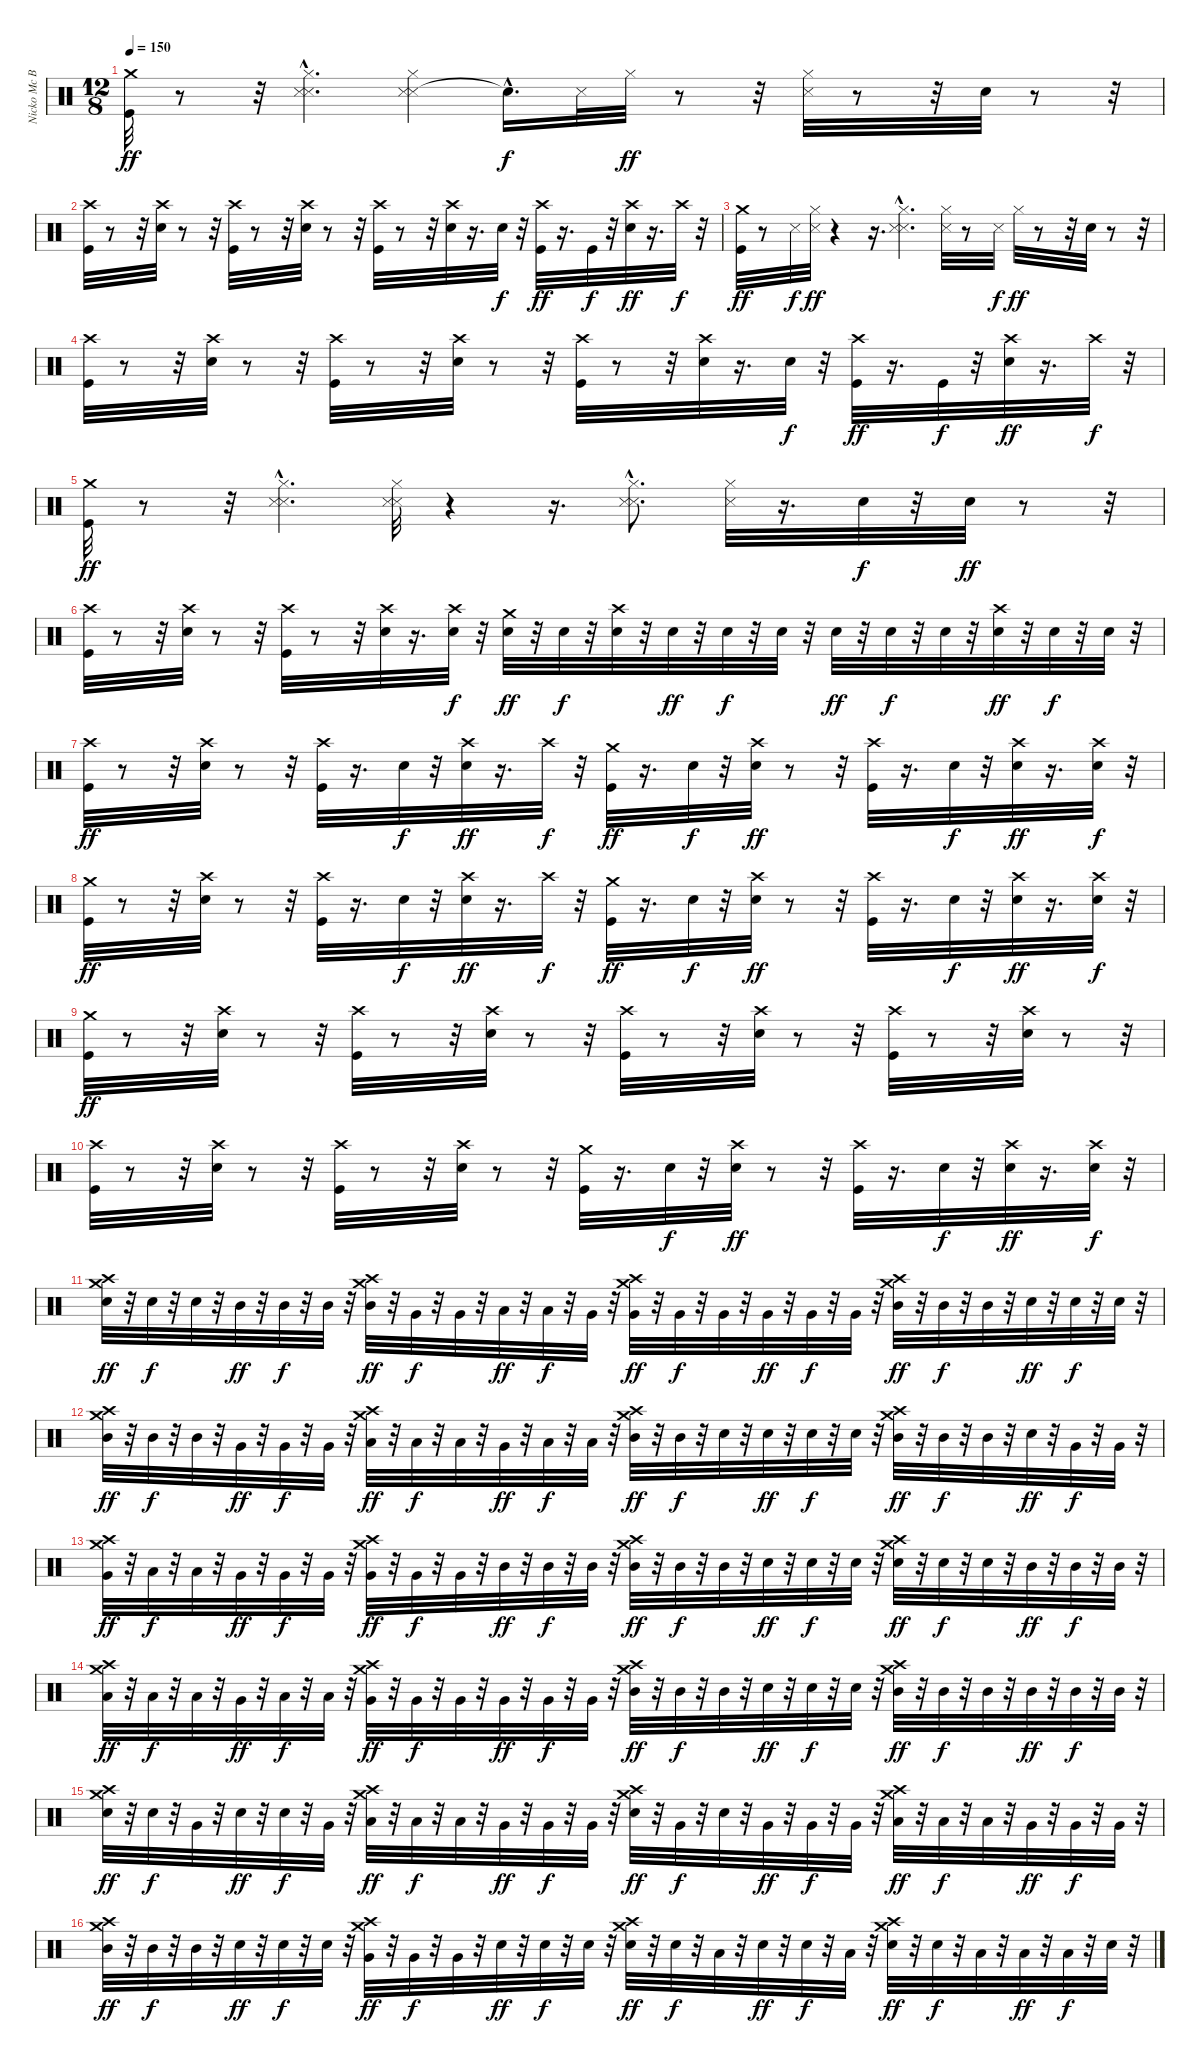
\track ("Nicko Mc Brain  ( drums )" "Nicko Mc B") {instrument percussion}
\staff {score}
\articulation defaults
\ts (12 8)
\tempo 150
\clef neutral
\ks c
("Crash medium (hit)" "Kick (hit)").32{dy ff} r.8 r.32 ("Metronome (hit)"{hac} "Metronome (hit)" "Hi-Hat (closed)").4{d} ("Metronome (hit)" "Metronome (hit)" "Hi-Hat (closed)").4 "Snare (hit)"{hac t}.16{d dy f} "Metronome (hit)".32 "Hi-Hat (closed)".32{dy ff} r.8 r.32 ("Hi-Hat (closed)" "Metronome (hit)").32 r.8 r.32 "Snare (hit) 2".32 r.8 r.32 |
("Crash high (hit)" "Kick (hit)").32 r.8 r.32 ("Crash high (hit)" "Snare (hit) 2").32 r.8 r.32 ("Crash high (hit)" "Kick (hit)").32 r.8 r.32 ("Crash high (hit)" "Snare (hit) 2").32 r.8 r.32 ("Crash high (hit)" "Kick (hit)").32 r.8 r.32 ("Crash high (hit)" "Snare (hit) 2").32 r.16{d} "Snare (hit) 2".32{dy f} r.32 ("Crash high (hit)" "Kick (hit)").32{dy ff} r.16{d} "Kick (hit)".32{dy f} r.32 ("Crash high (hit)" "Snare (hit) 2").32{dy ff} r.16{d} "Crash high (hit)".32{dy f} r.32 |
("Kick (hit)" "Crash medium (hit)").32{dy ff} r.8 "Metronome (hit)".32{dy f} ("Metronome (hit)" "Hi-Hat (closed)").32{dy ff} r.4 r.16{d} ("Metronome (hit)"{hac} "Metronome (hit)" "Hi-Hat (closed)").4{d} ("Metronome (hit)" "Hi-Hat (closed)").32 r.8 "Metronome (hit)".32{dy f} "Hi-Hat (closed)".32{dy ff} r.8 r.32 "Snare (hit) 2".32 r.8 r.32 |
("Crash high (hit)" "Kick (hit)").32 r.8 r.32 ("Crash high (hit)" "Snare (hit) 2").32 r.8 r.32 ("Crash high (hit)" "Kick (hit)").32 r.8 r.32 ("Crash high (hit)" "Snare (hit) 2").32 r.8 r.32 ("Crash high (hit)" "Kick (hit)").32 r.8 r.32 ("Crash high (hit)" "Snare (hit) 2").32 r.16{d} "Snare (hit) 2".32{dy f} r.32 ("Crash high (hit)" "Kick (hit)").32{dy ff} r.16{d} "Kick (hit)".32{dy f} r.32 ("Crash high (hit)" "Snare (hit) 2").32{dy ff} r.16{d} "Crash high (hit)".32{dy f} r.32 |
("Kick (hit)" "Crash medium (hit)").32{dy ff} r.8 r.32 ("Metronome (hit)"{hac} "Metronome (hit)" "Hi-Hat (closed)").4{d} ("Metronome (hit)" "Hi-Hat (closed)" "Metronome (hit)").32 r.4 r.16{d} ("Metronome (hit)"{hac} "Metronome (hit)" "Hi-Hat (closed)").8{d} ("Hi-Hat (closed)" "Metronome (hit)").32 r.16{d} "Snare (hit) 2".32{dy f} r.32 "Snare (hit) 2".32{dy ff} r.8 r.32 |
("Crash high (hit)" "Kick (hit)").32 r.8 r.32 ("Crash high (hit)" "Snare (hit) 2").32 r.8 r.32 ("Crash high (hit)" "Kick (hit)").32 r.8 r.32 ("Crash high (hit)" "Snare (hit) 2").32 r.16{d} ("Electric Snare (hit)" "Crash high (hit)").32{dy f} r.32 ("Snare (hit) 2" "Crash medium (hit)").32{dy ff} r.32 "Snare (hit) 2".32{dy f} r.32 ("Crash high (hit)" "Snare (hit) 2").32 r.32 "Snare (hit) 2".32{dy ff} r.32 "Snare (hit) 2".32{dy f} r.32 "Snare (hit) 2".32 r.32 "Snare (hit) 2".32{dy ff} r.32 "Snare (hit) 2".32{dy f} r.32 "Snare (hit) 2".32 r.32 ("Crash high (hit)" "Snare (hit) 2").32{dy ff} r.32 "Snare (hit) 2".32{dy f} r.32 "Snare (hit) 2".32 r.32 |
("Crash high (hit)" "Kick (hit)").32{dy ff} r.8 r.32 ("Crash high (hit)" "Snare (hit) 2").32 r.8 r.32 ("Crash high (hit)" "Kick (hit)").32 r.16{d} "Electric Snare (hit)".32{dy f} r.32 ("Crash high (hit)" "Snare (hit) 2").32{dy ff} r.16{d} "Crash high (hit)".32{dy f} r.32 ("Crash medium (hit)" "Kick (hit)").32{dy ff} r.16{d} "Snare (hit) 2".32{dy f} r.32 ("Crash high (hit)" "Snare (hit) 2").32{dy ff} r.8 r.32 ("Crash high (hit)" "Kick (hit)").32 r.16{d} "Electric Snare (hit)".32{dy f} r.32 ("Crash high (hit)" "Snare (hit) 2").32{dy ff} r.16{d} ("Electric Snare (hit)" "Crash high (hit)").32{dy f} r.32 |
("Crash medium (hit)" "Kick (hit)").32{dy ff} r.8 r.32 ("Crash high (hit)" "Snare (hit) 2").32 r.8 r.32 ("Crash high (hit)" "Kick (hit)").32 r.16{d} "Electric Snare (hit)".32{dy f} r.32 ("Crash high (hit)" "Snare (hit) 2").32{dy ff} r.16{d} "Crash high (hit)".32{dy f} r.32 ("Crash medium (hit)" "Kick (hit)").32{dy ff} r.16{d} "Snare (hit) 2".32{dy f} r.32 ("Crash high (hit)" "Snare (hit) 2").32{dy ff} r.8 r.32 ("Crash high (hit)" "Kick (hit)").32 r.16{d} "Electric Snare (hit)".32{dy f} r.32 ("Crash high (hit)" "Snare (hit) 2").32{dy ff} r.16{d} ("Electric Snare (hit)" "Crash high (hit)").32{dy f} r.32 |
("Crash medium (hit)" "Kick (hit)").32{dy ff} r.8 r.32 ("Crash high (hit)" "Snare (hit) 2").32 r.8 r.32 ("Crash high (hit)" "Kick (hit)").32 r.8 r.32 ("Crash high (hit)" "Snare (hit) 2").32 r.8 r.32 ("Crash high (hit)" "Kick (hit)").32 r.8 r.32 ("Crash high (hit)" "Snare (hit) 2").32 r.8 r.32 ("Crash high (hit)" "Kick (hit)").32 r.8 r.32 ("Crash high (hit)" "Snare (hit) 2").32 r.8 r.32 |
("Crash high (hit)" "Kick (hit)").32 r.8 r.32 ("Crash high (hit)" "Snare (hit) 2").32 r.8 r.32 ("Crash high (hit)" "Kick (hit)").32 r.8 r.32 ("Crash high (hit)" "Snare (hit) 2").32 r.8 r.32 ("Crash medium (hit)" "Kick (hit)").32 r.16{d} "Snare (hit) 2".32{dy f} r.32 ("Crash high (hit)" "Snare (hit) 2").32{dy ff} r.8 r.32 ("Crash high (hit)" "Kick (hit)").32 r.16{d} "Electric Snare (hit)".32{dy f} r.32 ("Crash high (hit)" "Snare (hit) 2").32{dy ff} r.16{d} ("Electric Snare (hit)" "Crash high (hit)").32{dy f} r.32 |
("Snare (hit) 2" "Crash medium (hit)" "Crash high (hit)").32{dy ff} r.32 "Electric Snare (hit)".32{dy f} r.32 "Electric Snare (hit)".32 r.32 "Mid Tom (hit)".32{dy ff} r.32 "Mid Tom (hit)".32{dy f} r.32 "Mid Tom (hit)".32 r.32 ("Mid Tom (hit)" "Crash high (hit)" "Crash medium (hit)").32{dy ff} r.32 "Very Low Tom (hit)".32{dy f} r.32 "Very Low Tom (hit)".32 r.32 "Low Floor Tom (hit)".32{dy ff} r.32 "Low Floor Tom (hit)".32{dy f} r.32 "Very Low Tom (hit)".32 r.32 ("Very Low Tom (hit)" "Crash medium (hit)" "Crash high (hit)").32{dy ff} r.32 "Very Low Tom (hit)".32{dy f} r.32 "Very Low Tom (hit)".32 r.32 "Very Low Tom (hit)".32{dy ff} r.32 "Very Low Tom (hit)".32{dy f} r.32 "Very Low Tom (hit)".32 r.32 ("Mid Tom (hit)" "Crash high (hit)" "Crash medium (hit)").32{dy ff} r.32 "Mid Tom (hit)".32{dy f} r.32 "Mid Tom (hit)".32 r.32 "Electric Snare (hit)".32{dy ff} r.32 "Electric Snare (hit)".32{dy f} r.32 "Electric Snare (hit)".32 r.32 |
("Mid Tom (hit)" "Crash medium (hit)" "Crash high (hit)").32{dy ff} r.32 "Mid Tom (hit)".32{dy f} r.32 "Mid Tom (hit)".32 r.32 "Very Low Tom (hit)".32{dy ff} r.32 "Very Low Tom (hit)".32{dy f} r.32 "Very Low Tom (hit)".32 r.32 ("Low Floor Tom (hit)" "Crash high (hit)" "Crash medium (hit)").32{dy ff} r.32 "Low Floor Tom (hit)".32{dy f} r.32 "Low Floor Tom (hit)".32 r.32 "Very Low Tom (hit)".32{dy ff} r.32 "Low Floor Tom (hit)".32{dy f} r.32 "Low Floor Tom (hit)".32 r.32 ("Mid Tom (hit)" "Crash medium (hit)" "Crash high (hit)").32{dy ff} r.32 "Mid Tom (hit)".32{dy f} r.32 "Electric Snare (hit)".32 r.32 "Electric Snare (hit)".32{dy ff} r.32 "Electric Snare (hit)".32{dy f} r.32 "Electric Snare (hit)".32 r.32 ("Mid Tom (hit)" "Crash high (hit)" "Crash medium (hit)").32{dy ff} r.32 "Mid Tom (hit)".32{dy f} r.32 "Mid Tom (hit)".32 r.32 "Electric Snare (hit)".32{dy ff} r.32 "Very Low Tom (hit)".32{dy f} r.32 "Very Low Tom (hit)".32 r.32 |
("Very Low Tom (hit)" "Crash medium (hit)" "Crash high (hit)").32{dy ff} r.32 "Low Floor Tom (hit)".32{dy f} r.32 "Low Floor Tom (hit)".32 r.32 "Very Low Tom (hit)".32{dy ff} r.32 "Very Low Tom (hit)".32{dy f} r.32 "Very Low Tom (hit)".32 r.32 ("Very Low Tom (hit)" "Crash high (hit)" "Crash medium (hit)").32{dy ff} r.32 "Very Low Tom (hit)".32{dy f} r.32 "Very Low Tom (hit)".32 r.32 "Mid Tom (hit)".32{dy ff} r.32 "Mid Tom (hit)".32{dy f} r.32 "Mid Tom (hit)".32 r.32 ("Mid Tom (hit)" "Crash medium (hit)" "Crash high (hit)").32{dy ff} r.32 "Mid Tom (hit)".32{dy f} r.32 "Mid Tom (hit)".32 r.32 "Snare (hit) 2".32{dy ff} r.32 "Electric Snare (hit)".32{dy f} r.32 "Electric Snare (hit)".32 r.32 ("Electric Snare (hit)" "Crash high (hit)" "Crash medium (hit)").32{dy ff} r.32 "Electric Snare (hit)".32{dy f} r.32 "Electric Snare (hit)".32 r.32 "Mid Tom (hit)".32{dy ff} r.32 "Mid Tom (hit)".32{dy f} r.32 "Mid Tom (hit)".32 r.32 |
("Low Floor Tom (hit)" "Crash medium (hit)" "Crash high (hit)").32{dy ff} r.32 "Low Floor Tom (hit)".32{dy f} r.32 "Low Floor Tom (hit)".32 r.32 "Very Low Tom (hit)".32{dy ff} r.32 "Low Floor Tom (hit)".32{dy f} r.32 "Low Floor Tom (hit)".32 r.32 ("Very Low Tom (hit)" "Crash high (hit)" "Crash medium (hit)").32{dy ff} r.32 "Very Low Tom (hit)".32{dy f} r.32 "Very Low Tom (hit)".32 r.32 "Very Low Tom (hit)".32{dy ff} r.32 "Very Low Tom (hit)".32{dy f} r.32 "Very Low Tom (hit)".32 r.32 ("Mid Tom (hit)" "Crash medium (hit)" "Crash high (hit)").32{dy ff} r.32 "Mid Tom (hit)".32{dy f} r.32 "Mid Tom (hit)".32 r.32 "Snare (hit) 2".32{dy ff} r.32 "Snare (hit) 2".32{dy f} r.32 "Snare (hit) 2".32 r.32 ("Mid Tom (hit)" "Crash high (hit)" "Crash medium (hit)").32{dy ff} r.32 "Mid Tom (hit)".32{dy f} r.32 "Mid Tom (hit)".32 r.32 "Mid Tom (hit)".32{dy ff} r.32 "Mid Tom (hit)".32{dy f} r.32 "Mid Tom (hit)".32 r.32 |
("Electric Snare (hit)" "Crash medium (hit)" "Crash high (hit)").32{dy ff} r.32 "Electric Snare (hit)".32{dy f} r.32 "Very Low Tom (hit)".32 r.32 "Snare (hit) 2".32{dy ff} r.32 "Snare (hit) 2".32{dy f} r.32 "Very Low Tom (hit)".32 r.32 ("Low Floor Tom (hit)" "Crash high (hit)" "Crash medium (hit)").32{dy ff} r.32 "Low Floor Tom (hit)".32{dy f} r.32 "Low Floor Tom (hit)".32 r.32 "Very Low Tom (hit)".32{dy ff} r.32 "Very Low Tom (hit)".32{dy f} r.32 "Very Low Tom (hit)".32 r.32 ("Snare (hit) 2" "Crash medium (hit)" "Crash high (hit)").32{dy ff} r.32 "Very Low Tom (hit)".32{dy f} r.32 "Electric Snare (hit)".32 r.32 "Very Low Tom (hit)".32{dy ff} r.32 "Very Low Tom (hit)".32{dy f} r.32 "Very Low Tom (hit)".32 r.32 ("Low Floor Tom (hit)" "Crash high (hit)" "Crash medium (hit)").32{dy ff} r.32 "Low Floor Tom (hit)".32{dy f} r.32 "Low Floor Tom (hit)".32 r.32 "Very Low Tom (hit)".32{dy ff} r.32 "Very Low Tom (hit)".32{dy f} r.32 "Very Low Tom (hit)".32 r.32 |
("Mid Tom (hit)" "Crash medium (hit)" "Crash high (hit)").32{dy ff} r.32 "Mid Tom (hit)".32{dy f} r.32 "Mid Tom (hit)".32 r.32 "Snare (hit) 2".32{dy ff} r.32 "Snare (hit) 2".32{dy f} r.32 "Snare (hit) 2".32 r.32 ("Very Low Tom (hit)" "Crash high (hit)" "Crash medium (hit)").32{dy ff} r.32 "Very Low Tom (hit)".32{dy f} r.32 "Very Low Tom (hit)".32 r.32 "Snare (hit) 2".32{dy ff} r.32 "Snare (hit) 2".32{dy f} r.32 "Snare (hit) 2".32 r.32 ("Electric Snare (hit)" "Crash medium (hit)" "Crash high (hit)").32{dy ff} r.32 "Snare (hit) 2".32{dy f} r.32 "Low Floor Tom (hit)".32 r.32 "Snare (hit) 2".32{dy ff} r.32 "Snare (hit) 2".32{dy f} r.32 "Low Floor Tom (hit)".32 r.32 ("Snare (hit) 2" "Crash high (hit)" "Crash medium (hit)").32{dy ff} r.32 "Snare (hit) 2".32{dy f} r.32 "Low Floor Tom (hit)".32 r.32 "Low Floor Tom (hit)".32{dy ff} r.32 "Low Floor Tom (hit)".32{dy f} r.32 "Snare (hit) 2".32 r.32
